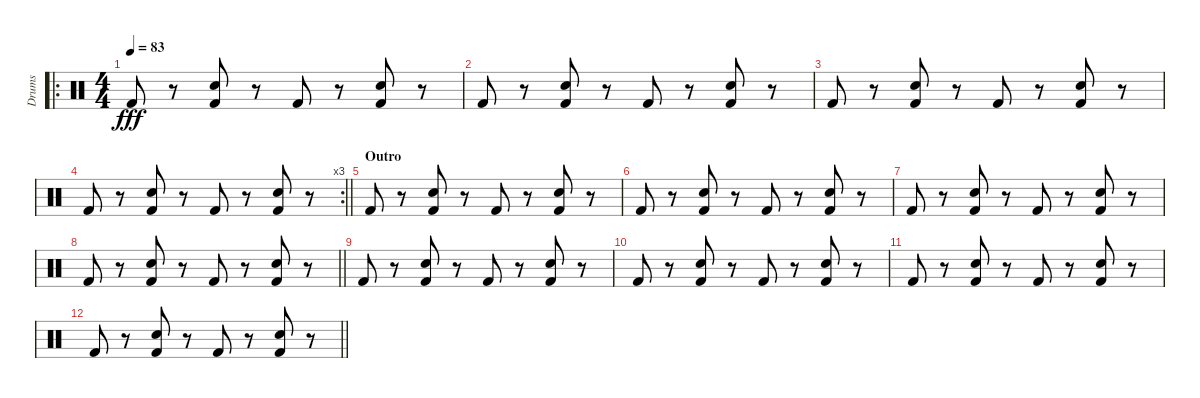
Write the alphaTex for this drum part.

\track ("Drums" "Drums") {instrument percussion}
\staff {score}
\articulation defaults
\ro
\ts (4 4)
\tempo 83
\clef neutral
\ks c "Kick (hit) 2".8{dy fff}
r.8 ("Hand Clap (hit)" "Kick (hit) 2").8 r.8 "Kick (hit) 2".8 r.8 ("Hand Clap (hit)" "Kick (hit) 2").8 r.8 |
"Kick (hit) 2".8 r.8 ("Hand Clap (hit)" "Kick (hit) 2").8 r.8 "Kick (hit) 2".8 r.8 ("Hand Clap (hit)" "Kick (hit) 2").8 r.8 |
"Kick (hit) 2".8 r.8 ("Hand Clap (hit)" "Kick (hit) 2").8 r.8 "Kick (hit) 2".8 r.8 ("Hand Clap (hit)" "Kick (hit) 2").8 r.8 |
\rc 3
\barLineRight lightlight "Kick (hit) 2".8
r.8 ("Hand Clap (hit)" "Kick (hit) 2").8 r.8 "Kick (hit) 2".8 r.8 ("Hand Clap (hit)" "Kick (hit) 2").8 r.8 |
\section ("" "Outro")
"Kick (hit) 2".8 r.8 ("Hand Clap (hit)" "Kick (hit) 2").8 r.8 "Kick (hit) 2".8 r.8 ("Hand Clap (hit)" "Kick (hit) 2").8 r.8 |
"Kick (hit) 2".8 r.8 ("Hand Clap (hit)" "Kick (hit) 2").8 r.8 "Kick (hit) 2".8 r.8 ("Hand Clap (hit)" "Kick (hit) 2").8 r.8 |
"Kick (hit) 2".8 r.8 ("Hand Clap (hit)" "Kick (hit) 2").8 r.8 "Kick (hit) 2".8 r.8 ("Hand Clap (hit)" "Kick (hit) 2").8 r.8 |
\barLineRight lightlight "Kick (hit) 2".8
r.8 ("Hand Clap (hit)" "Kick (hit) 2").8 r.8 "Kick (hit) 2".8 r.8 ("Hand Clap (hit)" "Kick (hit) 2").8 r.8 |
"Kick (hit) 2".8 r.8 ("Hand Clap (hit)" "Kick (hit) 2").8 r.8 "Kick (hit) 2".8 r.8 ("Hand Clap (hit)" "Kick (hit) 2").8 r.8 |
"Kick (hit) 2".8 r.8 ("Hand Clap (hit)" "Kick (hit) 2").8 r.8 "Kick (hit) 2".8 r.8 ("Hand Clap (hit)" "Kick (hit) 2").8 r.8 |
"Kick (hit) 2".8 r.8 ("Hand Clap (hit)" "Kick (hit) 2").8 r.8 "Kick (hit) 2".8 r.8 ("Hand Clap (hit)" "Kick (hit) 2").8 r.8 |
\barLineRight lightlight "Kick (hit) 2".8
r.8 ("Hand Clap (hit)" "Kick (hit) 2").8 r.8 "Kick (hit) 2".8 r.8 ("Hand Clap (hit)" "Kick (hit) 2").8 r.8
